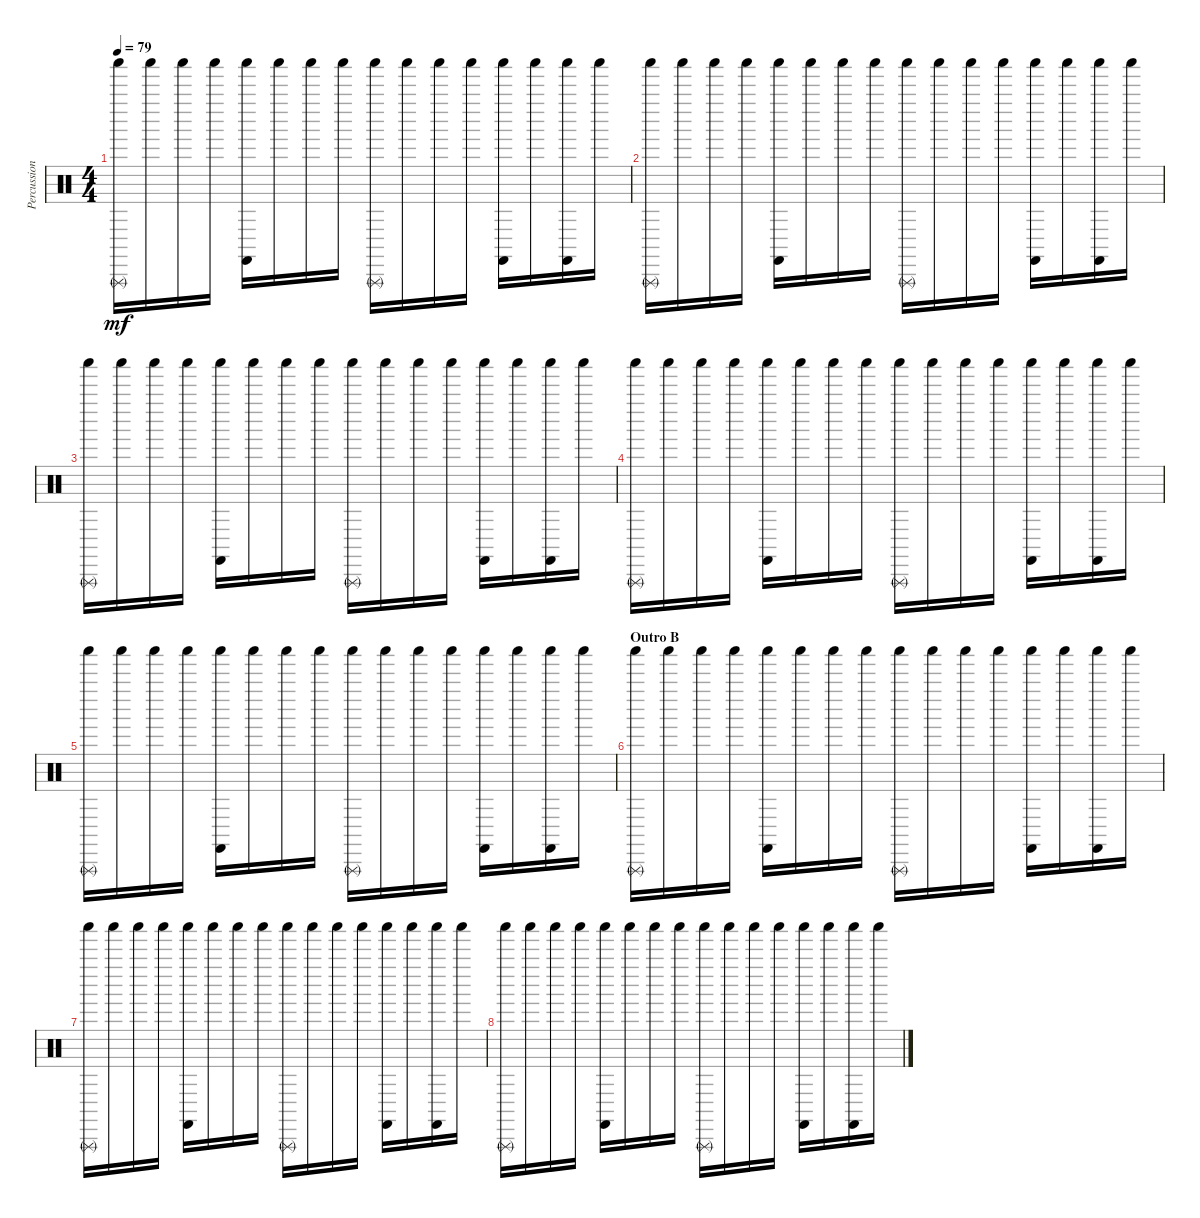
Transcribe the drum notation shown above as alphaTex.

\track ("Percussion" "Percussion") {instrument percussion}
\staff {score}
\articulation defaults
\ts (4 4)
\tempo 79
\clef neutral
\ks c
("Shaker (hit)" "Triangle (rnute)").16{dy mf} "Shaker (hit)".16 "Shaker (hit)".16 "Shaker (hit)".16 ("Shaker (hit)" "Castanets (hit)").16 "Shaker (hit)".16 "Shaker (hit)".16 "Shaker (hit)".16 ("Shaker (hit)" "Triangle (rnute)").16 "Shaker (hit)".16 "Shaker (hit)".16 "Shaker (hit)".16 ("Shaker (hit)" "Castanets (hit)").16 "Shaker (hit)".16 ("Shaker (hit)" "Castanets (hit)").16 "Shaker (hit)".16 |
("Shaker (hit)" "Triangle (rnute)").16 "Shaker (hit)".16 "Shaker (hit)".16 "Shaker (hit)".16 ("Shaker (hit)" "Castanets (hit)").16 "Shaker (hit)".16 "Shaker (hit)".16 "Shaker (hit)".16 ("Shaker (hit)" "Triangle (rnute)").16 "Shaker (hit)".16 "Shaker (hit)".16 "Shaker (hit)".16 ("Shaker (hit)" "Castanets (hit)").16 "Shaker (hit)".16 ("Shaker (hit)" "Castanets (hit)").16 "Shaker (hit)".16 |
("Shaker (hit)" "Triangle (rnute)").16 "Shaker (hit)".16 "Shaker (hit)".16 "Shaker (hit)".16 ("Shaker (hit)" "Castanets (hit)").16 "Shaker (hit)".16 "Shaker (hit)".16 "Shaker (hit)".16 ("Shaker (hit)" "Triangle (rnute)").16 "Shaker (hit)".16 "Shaker (hit)".16 "Shaker (hit)".16 ("Shaker (hit)" "Castanets (hit)").16 "Shaker (hit)".16 ("Shaker (hit)" "Castanets (hit)").16 "Shaker (hit)".16 |
("Shaker (hit)" "Triangle (rnute)").16 "Shaker (hit)".16 "Shaker (hit)".16 "Shaker (hit)".16 ("Shaker (hit)" "Castanets (hit)").16 "Shaker (hit)".16 "Shaker (hit)".16 "Shaker (hit)".16 ("Shaker (hit)" "Triangle (rnute)").16 "Shaker (hit)".16 "Shaker (hit)".16 "Shaker (hit)".16 ("Shaker (hit)" "Castanets (hit)").16 "Shaker (hit)".16 ("Shaker (hit)" "Castanets (hit)").16 "Shaker (hit)".16 |
("Shaker (hit)" "Triangle (rnute)").16{volume 6} "Shaker (hit)".16 "Shaker (hit)".16 "Shaker (hit)".16 ("Shaker (hit)" "Castanets (hit)").16 "Shaker (hit)".16 "Shaker (hit)".16 "Shaker (hit)".16 ("Shaker (hit)" "Triangle (rnute)").16 "Shaker (hit)".16 "Shaker (hit)".16 "Shaker (hit)".16 ("Shaker (hit)" "Castanets (hit)").16 "Shaker (hit)".16 ("Shaker (hit)" "Castanets (hit)").16 "Shaker (hit)".16 |
\section ("" "Outro B")
("Shaker (hit)" "Triangle (rnute)").16 "Shaker (hit)".16 "Shaker (hit)".16 "Shaker (hit)".16 ("Shaker (hit)" "Castanets (hit)").16 "Shaker (hit)".16 "Shaker (hit)".16 "Shaker (hit)".16 ("Shaker (hit)" "Triangle (rnute)").16 "Shaker (hit)".16 "Shaker (hit)".16 "Shaker (hit)".16 ("Shaker (hit)" "Castanets (hit)").16 "Shaker (hit)".16 ("Shaker (hit)" "Castanets (hit)").16 "Shaker (hit)".16 |
("Shaker (hit)" "Triangle (rnute)").16 "Shaker (hit)".16 "Shaker (hit)".16 "Shaker (hit)".16 ("Shaker (hit)" "Castanets (hit)").16 "Shaker (hit)".16 "Shaker (hit)".16 "Shaker (hit)".16 ("Shaker (hit)" "Triangle (rnute)").16 "Shaker (hit)".16 "Shaker (hit)".16 "Shaker (hit)".16 ("Shaker (hit)" "Castanets (hit)").16 "Shaker (hit)".16 ("Shaker (hit)" "Castanets (hit)").16 "Shaker (hit)".16 |
("Shaker (hit)" "Triangle (rnute)").16 "Shaker (hit)".16 "Shaker (hit)".16 "Shaker (hit)".16 ("Shaker (hit)" "Castanets (hit)").16 "Shaker (hit)".16 "Shaker (hit)".16 "Shaker (hit)".16 ("Shaker (hit)" "Triangle (rnute)").16 "Shaker (hit)".16 "Shaker (hit)".16 "Shaker (hit)".16 ("Shaker (hit)" "Castanets (hit)").16 "Shaker (hit)".16 ("Shaker (hit)" "Castanets (hit)").16 "Shaker (hit)".16
